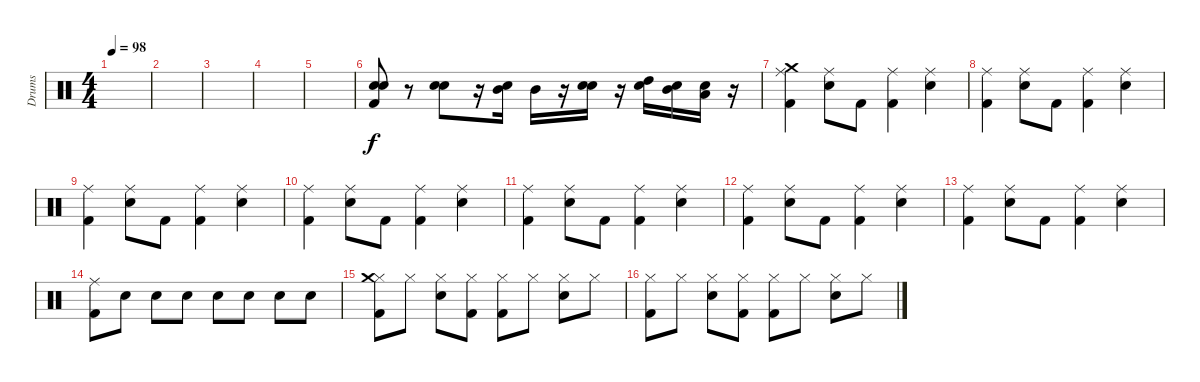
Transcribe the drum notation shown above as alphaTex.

\track ("Drums" "Drums") {instrument percussion}
\staff {score}
\articulation defaults
\ts (4 4)
\tempo 98
\clef neutral
\ks c
|
|
|
|
|
("Electric Snare (hit)" "Electric Snare (hit)" "Kick (hit) 2").8 r.8 ("Electric Snare (hit)" "Electric Snare (hit)").8 r.16 ("Mid Tom (hit)" "Electric Snare (hit)").16 "Mid Tom (hit)".16 r.16 ("Electric Snare (hit)" "Electric Snare (hit)").16 r.16 ("Electric Snare (hit)" "High Tom (hit)").16 ("Electric Snare (hit)" "Mid Tom (hit)").16 ("Electric Snare (hit)" "Low Tom (hit)").16 r.16 |
("Ride (middle)" "Crash medium (hit)" "Kick (hit) 2").4 ("Ride (middle)" "Electric Snare (hit)").8 "Kick (hit) 2".8 ("Ride (middle)" "Kick (hit) 2").4 ("Ride (middle)" "Electric Snare (hit)").4 |
("Ride (middle)" "Kick (hit) 2").4 ("Ride (middle)" "Electric Snare (hit)").8 "Kick (hit) 2".8 ("Ride (middle)" "Kick (hit) 2").4 ("Ride (middle)" "Electric Snare (hit)").4 |
("Ride (middle)" "Kick (hit) 2").4 ("Ride (middle)" "Electric Snare (hit)").8 "Kick (hit) 2".8 ("Ride (middle)" "Kick (hit) 2").4 ("Ride (middle)" "Electric Snare (hit)").4 |
("Ride (middle)" "Kick (hit) 2").4 ("Ride (middle)" "Electric Snare (hit)").8 "Kick (hit) 2".8 ("Ride (middle)" "Kick (hit) 2").4 ("Ride (middle)" "Electric Snare (hit)").4 |
("Ride (middle)" "Kick (hit) 2").4 ("Ride (middle)" "Electric Snare (hit)").8 "Kick (hit) 2".8 ("Ride (middle)" "Kick (hit) 2").4 ("Ride (middle)" "Electric Snare (hit)").4 |
("Ride (middle)" "Kick (hit) 2").4 ("Ride (middle)" "Electric Snare (hit)").8 "Kick (hit) 2".8 ("Ride (middle)" "Kick (hit) 2").4 ("Ride (middle)" "Electric Snare (hit)").4 |
("Ride (middle)" "Kick (hit) 2").4 ("Ride (middle)" "Electric Snare (hit)").8 "Kick (hit) 2".8 ("Ride (middle)" "Kick (hit) 2").4 ("Ride (middle)" "Electric Snare (hit)").4 |
("Ride (middle)" "Kick (hit) 2").8 "Electric Snare (hit)".8{volume 4} "Electric Snare (hit)".8{volume 5} "Electric Snare (hit)".8{volume 6} "Electric Snare (hit)".8{volume 7} "Electric Snare (hit)".8{volume 8} "Electric Snare (hit)".8{volume 10} "Electric Snare (hit)".8{volume 13} |
("Hi-Hat (closed)" "Crash medium (hit)" "Kick (hit) 2").8 "Hi-Hat (closed)".8 ("Hi-Hat (closed)" "Electric Snare (hit)").8 ("Hi-Hat (closed)" "Kick (hit) 2").8 ("Hi-Hat (closed)" "Kick (hit) 2").8 "Hi-Hat (closed)".8 ("Hi-Hat (closed)" "Electric Snare (hit)").8 "Hi-Hat (closed)".8 |
("Hi-Hat (closed)" "Kick (hit) 2").8 "Hi-Hat (closed)".8 ("Hi-Hat (closed)" "Electric Snare (hit)").8 ("Hi-Hat (closed)" "Kick (hit) 2").8 ("Hi-Hat (closed)" "Kick (hit) 2").8 "Hi-Hat (closed)".8 ("Hi-Hat (closed)" "Electric Snare (hit)").8 "Hi-Hat (closed)".8
